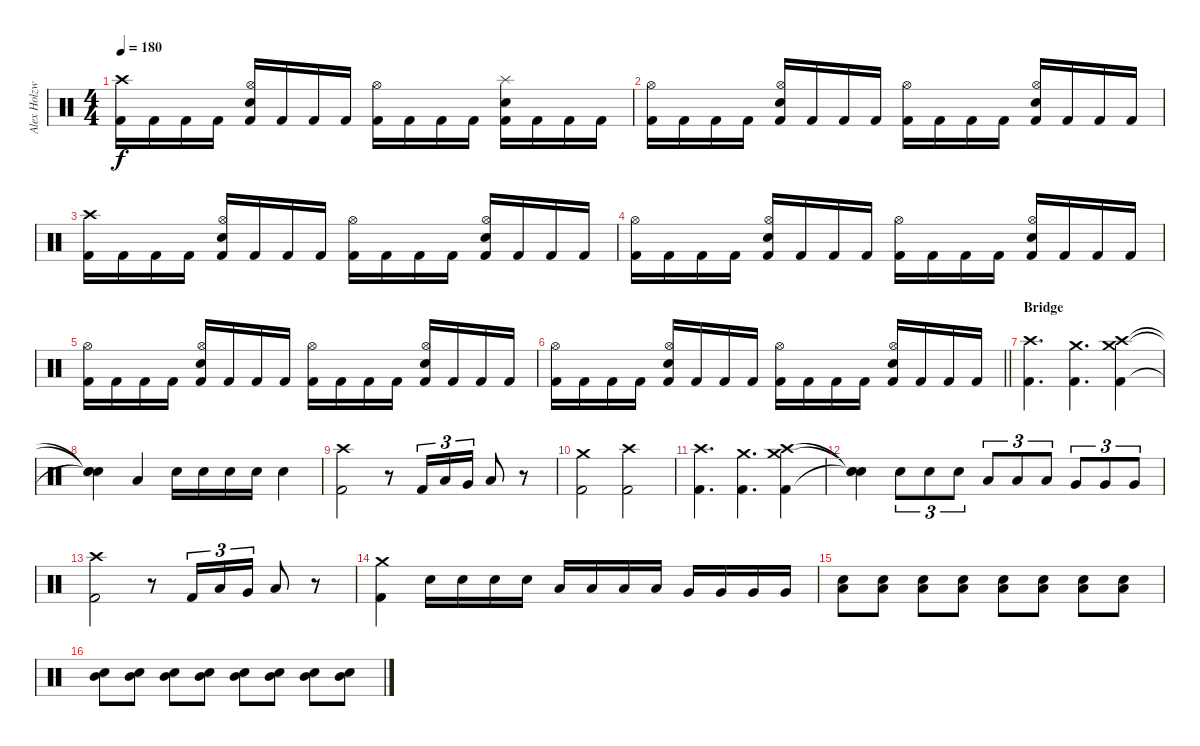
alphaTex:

\track ("Alex Holzwarth" "Alex Holzw") {instrument percussion}
\staff {score}
\articulation defaults
\ts (4 4)
\tempo 180
\clef neutral
\ks c
("Crash high (hit)" "Kick (hit) 2").16{dy f} "Kick (hit) 2".16 "Kick (hit) 2".16 "Kick (hit) 2".16 ("Hi-Hat (open)" "Electric Snare (hit)" "Kick (hit) 2").16 "Kick (hit) 2".16 "Kick (hit) 2".16 "Kick (hit) 2".16 ("Hi-Hat (open)" "Kick (hit) 2").16 "Kick (hit) 2".16 "Kick (hit) 2".16 "Kick (hit) 2".16 ("Splash (hit)" "Electric Snare (hit)" "Kick (hit) 2").16 "Kick (hit) 2".16 "Kick (hit) 2".16 "Kick (hit) 2".16 |
("Hi-Hat (open)" "Kick (hit) 2").16 "Kick (hit) 2".16 "Kick (hit) 2".16 "Kick (hit) 2".16 ("Hi-Hat (open)" "Electric Snare (hit)" "Kick (hit) 2").16 "Kick (hit) 2".16 "Kick (hit) 2".16 "Kick (hit) 2".16 ("Hi-Hat (open)" "Kick (hit) 2").16 "Kick (hit) 2".16 "Kick (hit) 2".16 "Kick (hit) 2".16 ("Hi-Hat (open)" "Electric Snare (hit)" "Kick (hit) 2").16 "Kick (hit) 2".16 "Kick (hit) 2".16 "Kick (hit) 2".16 |
("Crash high (hit)" "Kick (hit) 2").16 "Kick (hit) 2".16 "Kick (hit) 2".16 "Kick (hit) 2".16 ("Hi-Hat (open)" "Electric Snare (hit)" "Kick (hit) 2").16 "Kick (hit) 2".16 "Kick (hit) 2".16 "Kick (hit) 2".16 ("Hi-Hat (open)" "Kick (hit) 2").16 "Kick (hit) 2".16 "Kick (hit) 2".16 "Kick (hit) 2".16 ("Hi-Hat (open)" "Electric Snare (hit)" "Kick (hit) 2").16 "Kick (hit) 2".16 "Kick (hit) 2".16 "Kick (hit) 2".16 |
("Hi-Hat (open)" "Kick (hit) 2").16 "Kick (hit) 2".16 "Kick (hit) 2".16 "Kick (hit) 2".16 ("Hi-Hat (open)" "Electric Snare (hit)" "Kick (hit) 2").16 "Kick (hit) 2".16 "Kick (hit) 2".16 "Kick (hit) 2".16 ("Hi-Hat (open)" "Kick (hit) 2").16 "Kick (hit) 2".16 "Kick (hit) 2".16 "Kick (hit) 2".16 ("Hi-Hat (open)" "Electric Snare (hit)" "Kick (hit) 2").16 "Kick (hit) 2".16 "Kick (hit) 2".16 "Kick (hit) 2".16 |
("Hi-Hat (open)" "Kick (hit) 2").16 "Kick (hit) 2".16 "Kick (hit) 2".16 "Kick (hit) 2".16 ("Hi-Hat (open)" "Electric Snare (hit)" "Kick (hit) 2").16 "Kick (hit) 2".16 "Kick (hit) 2".16 "Kick (hit) 2".16 ("Hi-Hat (open)" "Kick (hit) 2").16 "Kick (hit) 2".16 "Kick (hit) 2".16 "Kick (hit) 2".16 ("Hi-Hat (open)" "Electric Snare (hit)" "Kick (hit) 2").16 "Kick (hit) 2".16 "Kick (hit) 2".16 "Kick (hit) 2".16 |
\barLineRight lightlight
("Hi-Hat (open)" "Kick (hit) 2").16 "Kick (hit) 2".16 "Kick (hit) 2".16 "Kick (hit) 2".16 ("Hi-Hat (open)" "Electric Snare (hit)" "Kick (hit) 2").16 "Kick (hit) 2".16 "Kick (hit) 2".16 "Kick (hit) 2".16 ("Hi-Hat (open)" "Kick (hit) 2").16 "Kick (hit) 2".16 "Kick (hit) 2".16 "Kick (hit) 2".16 ("Hi-Hat (open)" "Electric Snare (hit)" "Kick (hit) 2").16 "Kick (hit) 2".16 "Kick (hit) 2".16 "Kick (hit) 2".16 |
\section ("" "Bridge")
("Crash high (hit)" "Kick (hit) 2").4{d} ("Crash medium (hit)" "Kick (hit) 2").4{d} ("Crash high (hit)" "Crash medium (hit)" "Kick (hit) 2").4 |
("Snare (hit)"{t} "Snare (hit)"{t} "Snare (hit)"{t}).4 "Low Floor Tom (hit)".4 "Electric Snare (hit)".16 "Electric Snare (hit)".16 "Electric Snare (hit)".16 "Electric Snare (hit)".16 "Electric Snare (hit)".4 |
("Crash high (hit)" "Kick (hit) 2").2 r.8 "Kick (hit) 2".16{tu (3 2)} "Low Tom (hit)".16{tu (3 2)} "Very Low Tom (hit)".16{tu (3 2)} "Low Floor Tom (hit)".8 r.8 |
("Crash medium (hit)" "Kick (hit) 2").2 ("Crash high (hit)" "Kick (hit) 2").2 |
("Crash high (hit)" "Kick (hit) 2").4{d} ("Crash medium (hit)" "Kick (hit) 2").4{d} ("Crash high (hit)" "Crash medium (hit)" "Kick (hit) 2").4 |
("Snare (hit)"{t} "Snare (hit)"{t} "Snare (hit)"{t}).4 "Electric Snare (hit)".8{tu (3 2)} "Electric Snare (hit)".8{tu (3 2)} "Electric Snare (hit)".8{tu (3 2)} "Low Tom (hit)".8{tu (3 2)} "Low Tom (hit)".8{tu (3 2)} "Low Tom (hit)".8{tu (3 2)} "Very Low Tom (hit)".8{tu (3 2)} "Very Low Tom (hit)".8{tu (3 2)} "Very Low Tom (hit)".8{tu (3 2)} |
("Crash high (hit)" "Kick (hit) 2").2 r.8 "Kick (hit) 2".16{tu (3 2)} "Low Tom (hit)".16{tu (3 2)} "Very Low Tom (hit)".16{tu (3 2)} "Low Floor Tom (hit)".8 r.8 |
("Crash medium (hit)" "Kick (hit) 2").4 "Electric Snare (hit)".16 "Electric Snare (hit)".16 "Electric Snare (hit)".16 "Electric Snare (hit)".16 "Low Tom (hit)".16 "Low Tom (hit)".16 "Low Tom (hit)".16 "Low Tom (hit)".16 "Very Low Tom (hit)".16 "Very Low Tom (hit)".16 "Very Low Tom (hit)".16 "Very Low Tom (hit)".16 |
("Electric Snare (hit)" "Low Tom (hit)").8 ("Electric Snare (hit)" "Low Tom (hit)").8 ("Electric Snare (hit)" "Low Tom (hit)").8 ("Electric Snare (hit)" "Low Tom (hit)").8 ("Electric Snare (hit)" "Low Tom (hit)").8 ("Electric Snare (hit)" "Low Tom (hit)").8 ("Electric Snare (hit)" "Low Tom (hit)").8 ("Electric Snare (hit)" "Low Tom (hit)").8 |
("Electric Snare (hit)" "Mid Tom (hit)").8 ("Electric Snare (hit)" "Mid Tom (hit)").8 ("Electric Snare (hit)" "Mid Tom (hit)").8 ("Electric Snare (hit)" "Mid Tom (hit)").8 ("Electric Snare (hit)" "Mid Tom (hit)").8 ("Electric Snare (hit)" "Mid Tom (hit)").8 ("Electric Snare (hit)" "Mid Tom (hit)").8 ("Electric Snare (hit)" "Mid Tom (hit)").8
